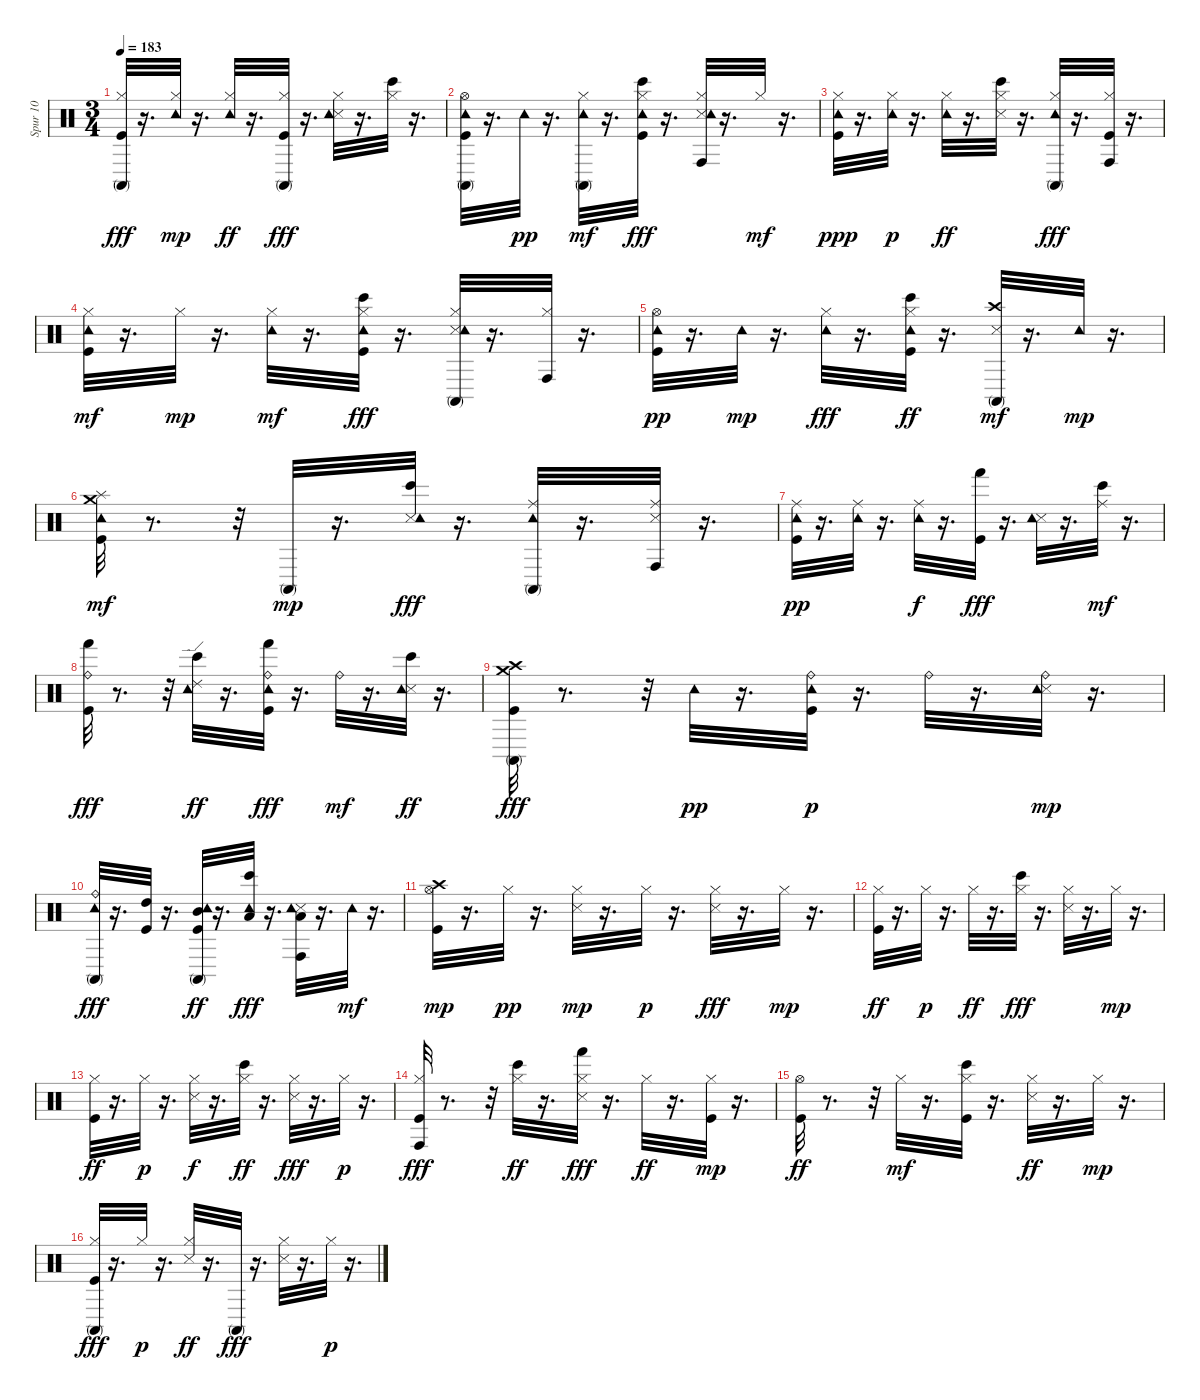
\track ("Spur 10" "Spur 10") {instrument percussion}
\staff {score}
\articulation defaults
\ts (3 4)
\tempo 183
\clef neutral
\ks c
("Kick (hit)" "Hi-Hat (closed)" "Conga high (mute)").32{dy fff} r.16{d} ("Hi-Hat (closed)" "Tambourine (hit)").32{dy mp} r.16{d} ("Hi-Hat (closed)" "Tambourine (hit)").32{dy ff} r.16{d} ("Kick (hit)" "Hi-Hat (closed)" "Conga high (mute)").32{dy fff} r.16{d} ("Snare (side stick) 3" "Hi-Hat (closed)" "Tambourine (hit)").32 r.16{d} ("Hi-Hat (closed)" "Bongo High (hit)").32 r.16{d} |
("Kick (hit)" "Hi-Hat (open)" "Tambourine (hit)" "Conga high (mute)").32 r.16{d} "Tambourine (hit)".32{dy pp} r.16{d} ("Hi-Hat (closed)" "Tambourine (hit)" "Conga high (mute)").32{dy mf} r.16{d} ("Kick (hit)" "Hi-Hat (closed)" "Tambourine (hit)" "Bongo High (hit)").32{dy fff} r.16{d} ("Snare (side stick) 3" "Hi-Hat (closed)" "Tambourine (hit)" "Conga high (hit)").32 r.16{d} "Hi-Hat (closed)".32{dy mf} r.16{d} |
("Kick (hit)" "Hi-Hat (closed)" "Tambourine (hit)").32{dy ppp} r.16{d} ("Hi-Hat (closed)" "Tambourine (hit)").32{dy p} r.16{d} ("Hi-Hat (closed)" "Tambourine (hit)").32{dy ff} r.16{d} ("Snare (side stick) 3" "Hi-Hat (closed)" "Bongo High (hit)").32 r.16{d} ("Hi-Hat (closed)" "Tambourine (hit)" "Conga high (mute)").32{dy fff} r.16{d} ("Kick (hit)" "Hi-Hat (closed)" "Conga high (hit)").32 r.16{d} |
("Kick (hit)" "Hi-Hat (closed)" "Tambourine (hit)").32{dy mf} r.16{d} "Hi-Hat (closed)".32{dy mp} r.16{d} ("Hi-Hat (closed)" "Tambourine (hit)").32{dy mf} r.16{d} ("Kick (hit)" "Hi-Hat (closed)" "Tambourine (hit)" "Bongo High (hit)").32{dy fff} r.16{d} ("Snare (side stick) 3" "Hi-Hat (closed)" "Tambourine (hit)" "Conga high (mute)").32 r.16{d} ("Hi-Hat (closed)" "Conga high (hit)").32 r.16{d} |
("Kick (hit)" "Hi-Hat (open)" "Tambourine (hit)").32{dy pp} r.16{d} "Tambourine (hit)".32{dy mp} r.16{d} ("Hi-Hat (closed)" "Tambourine (hit)").32{dy fff} r.16{d} ("Kick (hit)" "Hi-Hat (closed)" "Tambourine (hit)" "Bongo High (hit)").32{dy ff} r.16{d} ("Snare (side stick) 3" "Crash high (hit)" "Conga high (mute)").32{dy mf} r.16{d} "Tambourine (hit)".32{dy mp} r.16{d} |
("Kick (hit)" "Tambourine (hit)" "Splash (hit)" "Crash medium (hit)").32{dy mf} r.8{d} r.32 "Conga high (mute)".32{dy mp} r.16{d} ("Snare (side stick) 3" "Tambourine (hit)" "Bongo High (hit)").32{dy fff} r.16{d} ("Ride (middle)" "Tambourine (hit)" "Conga high (mute)").32 r.16{d} ("Snare (side stick) 3" "Ride (middle)" "Conga high (hit)").32 r.16{d} |
("Kick (hit)" "Ride (middle)" "Tambourine (hit)").32{dy pp} r.16{d} ("Ride (middle)" "Tambourine (hit)").32 r.16{d} ("Ride (middle)" "Tambourine (hit)").32{dy f} r.16{d} ("Kick (hit)" "Hand (hit)").32{dy fff} r.16{d} ("Snare (side stick) 3" "Tambourine (hit)").32 r.16{d} ("Ride (middle)" "Bongo High (hit)").32{dy mf} r.16{d} |
("Kick (hit)" "Ride (bell)" "Hand (hit)").32{dy fff} r.8{d} r.32 ("Tambourine (hit)" "Ride (edge) 2" "Bongo High (hit)").32{dy ff} r.16{d} ("Kick (hit)" "Ride (bell)" "Tambourine (hit)" "Hand (hit)").32{dy fff} r.16{d} "Ride (bell)".32{dy mf} r.16{d} ("Snare (side stick) 3" "Tambourine (hit)" "Bongo High (hit)").32{dy ff} r.16{d} |
("Kick (hit)" "Crash high (hit)" "Crash medium (hit)" "Conga high (mute)").32{dy fff} r.8{d} r.32 "Tambourine (hit)".32{dy pp} r.16{d} ("Kick (hit)" "Ride (bell)" "Tambourine (hit)").32{dy p} r.16{d} "Ride (bell)".32 r.16{d} ("Snare (side stick) 3" "Ride (bell)" "Tambourine (hit)").32{dy mp} r.16{d} |
("Ride (bell)" "Tambourine (hit)" "Conga high (mute)").32{dy fff} r.16{d} ("Kick (hit)" "High Tom (hit)").32 r.16{d} ("Kick (hit)" "Mid Tom (hit)" "Tambourine (hit)" "Conga high (mute)").32{dy ff} r.16{d} ("Low Tom (hit)" "Tambourine (hit)" "Bongo High (hit)").32{dy fff} r.16{d} ("Snare (side stick) 3" "Low Tom (hit)" "Tambourine (hit)" "Conga high (hit)").32 r.16{d} "Tambourine (hit)".32{dy mf} r.16{d} |
("Kick (hit)" "Hi-Hat (open)" "Crash high (hit)").32{dy mp} r.16{d} "Hi-Hat (closed)".32{dy pp} r.16{d} ("Snare (side stick) 3" "Hi-Hat (closed)").32{dy mp} r.16{d} "Hi-Hat (closed)".32{dy p} r.16{d} ("Snare (side stick) 3" "Hi-Hat (closed)").32{dy fff} r.16{d} "Hi-Hat (closed)".32{dy mp} r.16{d} |
("Kick (hit)" "Hi-Hat (closed)").32{dy ff} r.16{d} "Hi-Hat (closed)".32{dy p} r.16{d} "Hi-Hat (closed)".32{dy ff} r.16{d} ("Hi-Hat (closed)" "Bongo High (hit)").32{dy fff} r.16{d} ("Snare (side stick) 3" "Hi-Hat (closed)").32 r.16{d} "Hi-Hat (closed)".32{dy mp} r.16{d} |
("Kick (hit)" "Hi-Hat (closed)").32{dy ff} r.16{d} "Hi-Hat (closed)".32{dy p} r.16{d} ("Snare (side stick) 3" "Hi-Hat (closed)").32{dy f} r.16{d} ("Hi-Hat (closed)" "Bongo High (hit)").32{dy ff} r.16{d} ("Snare (side stick) 3" "Hi-Hat (closed)").32{dy fff} r.16{d} "Hi-Hat (closed)".32{dy p} r.16{d} |
("Kick (hit)" "Hi-Hat (closed)" "Conga high (hit)").32{dy fff} r.8{d} r.32 ("Hi-Hat (closed)" "Bongo High (hit)").32{dy ff} r.16{d} ("Snare (side stick) 3" "Hi-Hat (closed)" "Hand (hit)").32{dy fff} r.16{d} "Hi-Hat (closed)".32{dy ff} r.16{d} ("Kick (hit)" "Hi-Hat (closed)").32{dy mp} r.16{d} |
("Kick (hit)" "Hi-Hat (open)").32{dy ff} r.8{d} r.32 "Hi-Hat (closed)".32{dy mf} r.16{d} ("Kick (hit)" "Hi-Hat (closed)" "Bongo High (hit)").32 r.16{d} ("Snare (side stick) 3" "Hi-Hat (closed)").32{dy ff} r.16{d} "Hi-Hat (closed)".32{dy mp} r.16{d} |
("Kick (hit)" "Hi-Hat (closed)" "Conga high (mute)").32{dy fff} r.16{d} "Hi-Hat (closed)".32{dy p} r.16{d} ("Snare (side stick) 3" "Hi-Hat (closed)").32{dy ff} r.16{d} "Conga high (mute)".32{dy fff} r.16{d} ("Snare (side stick) 3" "Hi-Hat (closed)").32 r.16{d} "Hi-Hat (closed)".32{dy p} r.16{d}
